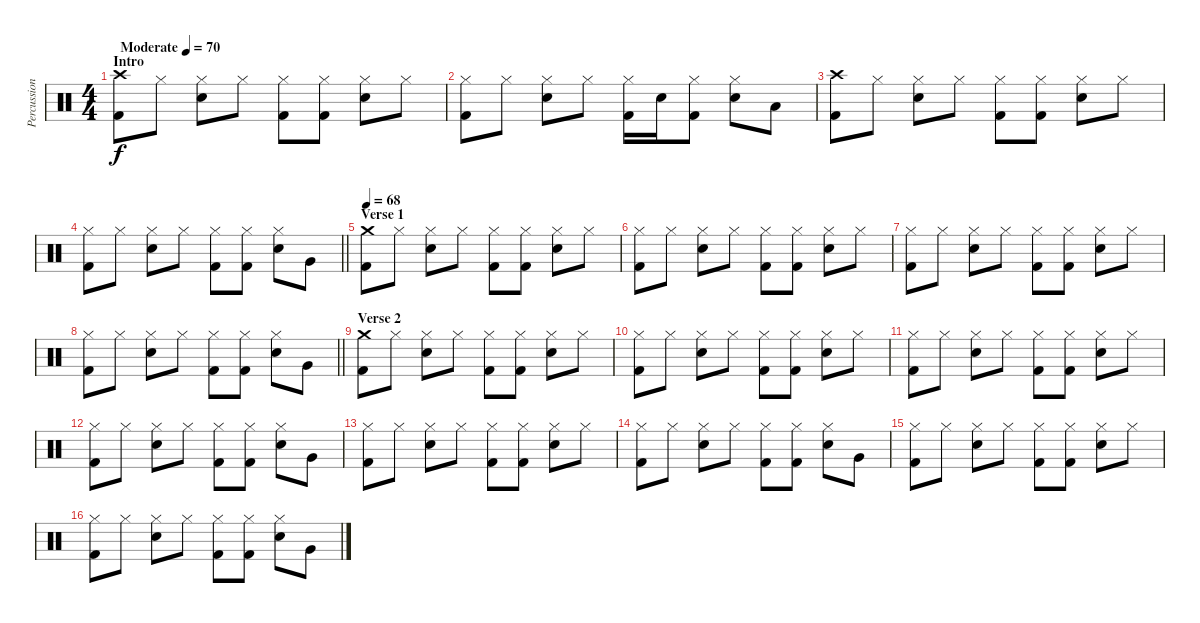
\track ("Percussion" "Percussion") {instrument percussion}
\staff {score}
\articulation defaults
\ts (4 4)
\section ("" "Intro")
\tempo (70 "Moderate")
\clef neutral
\ks c
("Crash high (hit)" "Kick (hit) 2").8{dy f} "Hi-Hat (closed)".8 ("Hi-Hat (closed)" "Snare (hit) 2").8 "Hi-Hat (closed)".8 ("Hi-Hat (closed)" "Kick (hit) 2").8 ("Hi-Hat (closed)" "Kick (hit) 2").8 ("Hi-Hat (closed)" "Snare (hit) 2").8 "Hi-Hat (closed)".8 |
("Hi-Hat (closed)" "Kick (hit) 2").8 "Hi-Hat (closed)".8 ("Hi-Hat (closed)" "Snare (hit) 2").8 "Hi-Hat (closed)".8 ("Hi-Hat (closed)" "Kick (hit) 2").16 "Snare (hit) 2".16 ("Hi-Hat (closed)" "Kick (hit) 2").8 ("Hi-Hat (closed)" "Snare (hit) 2").8 "Low Tom (hit)".8 |
("Crash high (hit)" "Kick (hit) 2").8 "Hi-Hat (closed)".8 ("Hi-Hat (closed)" "Snare (hit) 2").8 "Hi-Hat (closed)".8 ("Hi-Hat (closed)" "Kick (hit) 2").8 ("Hi-Hat (closed)" "Kick (hit) 2").8 ("Hi-Hat (closed)" "Snare (hit) 2").8 "Hi-Hat (closed)".8 |
\barLineRight lightlight
("Hi-Hat (closed)" "Kick (hit) 2").8 "Hi-Hat (closed)".8 ("Hi-Hat (closed)" "Snare (hit) 2").8 "Hi-Hat (closed)".8 ("Hi-Hat (closed)" "Kick (hit) 2").8 ("Hi-Hat (closed)" "Kick (hit) 2").8 ("Hi-Hat (closed)" "Snare (hit) 2").8 "Very Low Tom (hit)".8 |
\section ("" "Verse 1")
\tempo 68
("Crash medium (hit)" "Kick (hit) 2").8 "Hi-Hat (closed)".8 ("Hi-Hat (closed)" "Snare (hit) 2").8 "Hi-Hat (closed)".8 ("Hi-Hat (closed)" "Kick (hit) 2").8 ("Hi-Hat (closed)" "Kick (hit) 2").8 ("Hi-Hat (closed)" "Snare (hit) 2").8 "Hi-Hat (closed)".8 |
("Hi-Hat (closed)" "Kick (hit) 2").8 "Hi-Hat (closed)".8 ("Hi-Hat (closed)" "Snare (hit) 2").8 "Hi-Hat (closed)".8 ("Hi-Hat (closed)" "Kick (hit) 2").8 ("Hi-Hat (closed)" "Kick (hit) 2").8 ("Hi-Hat (closed)" "Snare (hit) 2").8 "Hi-Hat (closed)".8 |
("Hi-Hat (closed)" "Kick (hit) 2").8 "Hi-Hat (closed)".8 ("Hi-Hat (closed)" "Snare (hit) 2").8 "Hi-Hat (closed)".8 ("Hi-Hat (closed)" "Kick (hit) 2").8 ("Hi-Hat (closed)" "Kick (hit) 2").8 ("Hi-Hat (closed)" "Snare (hit) 2").8 "Hi-Hat (closed)".8 |
\barLineRight lightlight
("Hi-Hat (closed)" "Kick (hit) 2").8 "Hi-Hat (closed)".8 ("Hi-Hat (closed)" "Snare (hit) 2").8 "Hi-Hat (closed)".8 ("Hi-Hat (closed)" "Kick (hit) 2").8 ("Hi-Hat (closed)" "Kick (hit) 2").8 ("Hi-Hat (closed)" "Snare (hit) 2").8 "Very Low Tom (hit)".8 |
\section ("" "Verse 2")
("Crash medium (hit)" "Kick (hit) 2").8 "Hi-Hat (closed)".8 ("Hi-Hat (closed)" "Snare (hit) 2").8 "Hi-Hat (closed)".8 ("Hi-Hat (closed)" "Kick (hit) 2").8 ("Hi-Hat (closed)" "Kick (hit) 2").8 ("Hi-Hat (closed)" "Snare (hit) 2").8 "Hi-Hat (closed)".8 |
("Hi-Hat (closed)" "Kick (hit) 2").8 "Hi-Hat (closed)".8 ("Hi-Hat (closed)" "Snare (hit) 2").8 "Hi-Hat (closed)".8 ("Hi-Hat (closed)" "Kick (hit) 2").8 ("Hi-Hat (closed)" "Kick (hit) 2").8 ("Hi-Hat (closed)" "Snare (hit) 2").8 "Hi-Hat (closed)".8 |
("Hi-Hat (closed)" "Kick (hit) 2").8 "Hi-Hat (closed)".8 ("Hi-Hat (closed)" "Snare (hit) 2").8 "Hi-Hat (closed)".8 ("Hi-Hat (closed)" "Kick (hit) 2").8 ("Hi-Hat (closed)" "Kick (hit) 2").8 ("Hi-Hat (closed)" "Snare (hit) 2").8 "Hi-Hat (closed)".8 |
("Hi-Hat (closed)" "Kick (hit) 2").8 "Hi-Hat (closed)".8 ("Hi-Hat (closed)" "Snare (hit) 2").8 "Hi-Hat (closed)".8 ("Hi-Hat (closed)" "Kick (hit) 2").8 ("Hi-Hat (closed)" "Kick (hit) 2").8 ("Hi-Hat (closed)" "Snare (hit) 2").8 "Very Low Tom (hit)".8 |
("Hi-Hat (closed)" "Kick (hit) 2").8 "Hi-Hat (closed)".8 ("Hi-Hat (closed)" "Snare (hit) 2").8 "Hi-Hat (closed)".8 ("Hi-Hat (closed)" "Kick (hit) 2").8 ("Hi-Hat (closed)" "Kick (hit) 2").8 ("Hi-Hat (closed)" "Snare (hit) 2").8 "Hi-Hat (closed)".8 |
("Hi-Hat (closed)" "Kick (hit) 2").8 "Hi-Hat (closed)".8 ("Hi-Hat (closed)" "Snare (hit) 2").8 "Hi-Hat (closed)".8 ("Hi-Hat (closed)" "Kick (hit) 2").8 ("Hi-Hat (closed)" "Kick (hit) 2").8 ("Hi-Hat (closed)" "Snare (hit) 2").8 "Very Low Tom (hit)".8 |
("Hi-Hat (closed)" "Kick (hit) 2").8 "Hi-Hat (closed)".8 ("Hi-Hat (closed)" "Snare (hit) 2").8 "Hi-Hat (closed)".8 ("Hi-Hat (closed)" "Kick (hit) 2").8 ("Hi-Hat (closed)" "Kick (hit) 2").8 ("Hi-Hat (closed)" "Snare (hit) 2").8 "Hi-Hat (closed)".8 |
("Hi-Hat (closed)" "Kick (hit) 2").8 "Hi-Hat (closed)".8 ("Hi-Hat (closed)" "Snare (hit) 2").8 "Hi-Hat (closed)".8 ("Hi-Hat (closed)" "Kick (hit) 2").8 ("Hi-Hat (closed)" "Kick (hit) 2").8 ("Hi-Hat (closed)" "Snare (hit) 2").8 "Very Low Tom (hit)".8
